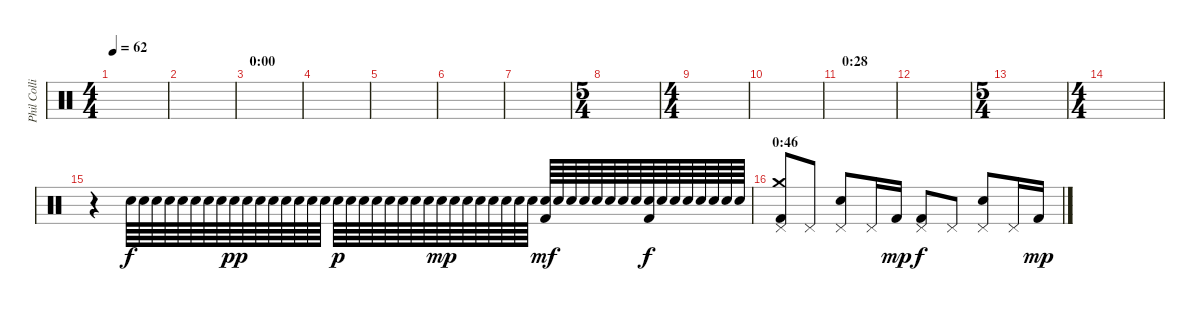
\track ("Phil Collins (drums)" "Phil Colli") {instrument percussion}
\staff {score}
\articulation defaults
\ts (4 4)
\tempo 62
\clef neutral
\ks c
|
|
\section ("" "0:00")
|
|
|
|
|
\ts (5 4)
|
\ts (4 4)
|
|
\section ("" "0:28")
|
|
\ts (5 4)
|
\ts (4 4)
|
r.4 "Electric Snare (hit)".64 "Electric Snare (hit)".64 "Electric Snare (hit)".64 "Electric Snare (hit)".64 "Electric Snare (hit)".64 "Electric Snare (hit)".64 "Electric Snare (hit)".64 "Electric Snare (hit)".64 "Electric Snare (hit)".64{dy pp} "Electric Snare (hit)".64 "Electric Snare (hit)".64 "Electric Snare (hit)".64 "Electric Snare (hit)".64 "Electric Snare (hit)".64 "Electric Snare (hit)".64 "Electric Snare (hit)".64 "Electric Snare (hit)".64{dy p} "Electric Snare (hit)".64 "Electric Snare (hit)".64 "Electric Snare (hit)".64 "Electric Snare (hit)".64 "Electric Snare (hit)".64 "Electric Snare (hit)".64 "Electric Snare (hit)".64 "Electric Snare (hit)".64{dy mp} "Electric Snare (hit)".64 "Electric Snare (hit)".64 "Electric Snare (hit)".64 "Electric Snare (hit)".64 "Electric Snare (hit)".64 "Electric Snare (hit)".64 "Electric Snare (hit)".64 ("Kick (hit) 2" "Electric Snare (hit)").64{dy mf} "Electric Snare (hit)".64 "Electric Snare (hit)".64 "Electric Snare (hit)".64 "Electric Snare (hit)".64 "Electric Snare (hit)".64 "Electric Snare (hit)".64 "Electric Snare (hit)".64 ("Kick (hit) 2" "Electric Snare (hit)").64{dy f} "Electric Snare (hit)".64 "Electric Snare (hit)".64 "Electric Snare (hit)".64 "Electric Snare (hit)".64 "Electric Snare (hit)".64 "Electric Snare (hit)".64 "Electric Snare (hit)".64 |
\section ("" "0:46")
("Crash medium (hit)" "Pedal Hi-Hat (hit)" "Kick (hit) 2").8 "Pedal Hi-Hat (hit)".8 ("Pedal Hi-Hat (hit)" "Electric Snare (hit)").8 "Pedal Hi-Hat (hit)".16 "Kick (hit) 2".16{dy mp} ("Pedal Hi-Hat (hit)" "Kick (hit) 2").8{dy f} "Pedal Hi-Hat (hit)".8 ("Pedal Hi-Hat (hit)" "Electric Snare (hit)").8 "Pedal Hi-Hat (hit)".16 "Kick (hit) 2".16{dy mp}
